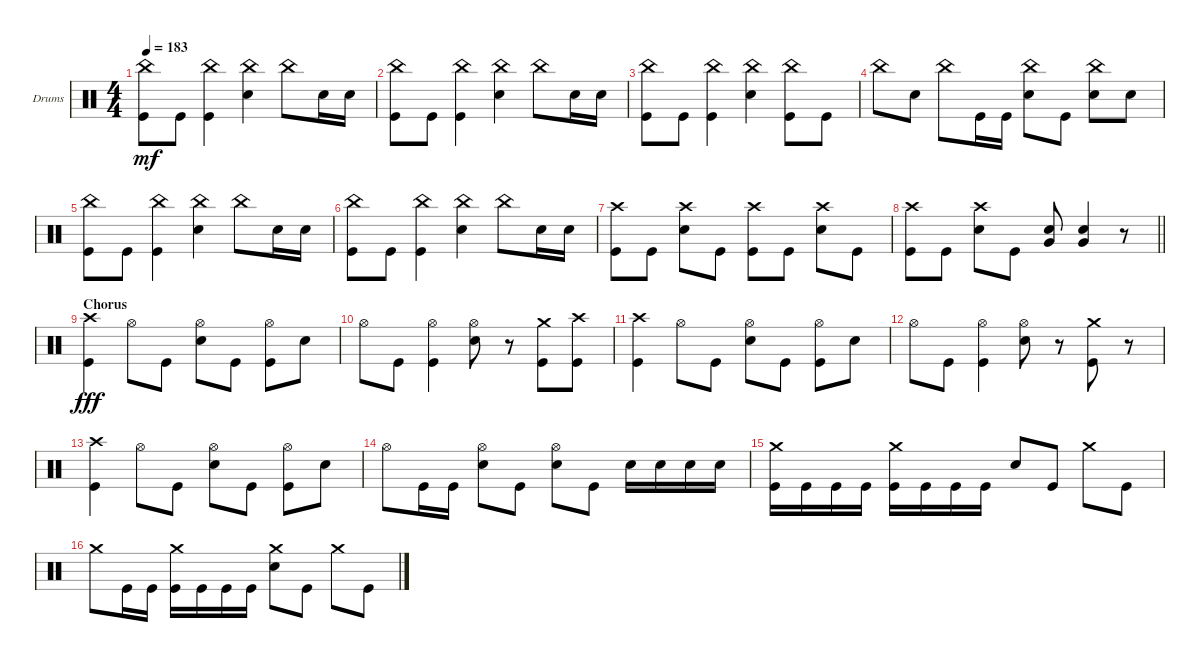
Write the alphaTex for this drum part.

\bracketExtendMode groupsimilarinstruments
\firstSystemTrackNameOrientation horizontal
\otherSystemsTrackNameOrientation horizontal
\track ("Drumkit" "Drums") {instrument percussion}
\staff {score}
\articulation defaults
\ts (4 4)
\tempo 183
\clef neutral
\scale
0.333333
\ks c
("Kick (hit)" "China (hit)").8{dy mf} "Kick (hit)".8 ("Kick (hit)" "China (hit)").4 ("Snare (hit) 2" "China (hit)").4 "China (hit)".8 "Snare (hit) 2".16 "Snare (hit) 2".16 |
\scale
0.333333 ("Kick (hit)" "China (hit)").8 "Kick (hit)".8 ("Kick (hit)" "China (hit)").4 ("Snare (hit) 2" "China (hit)").4 "China (hit)".8 "Snare (hit) 2".16 "Snare (hit) 2".16 |
\scale
0.333333 ("Kick (hit)" "China (hit)").8 "Kick (hit)".8 ("Kick (hit)" "China (hit)").4 ("Snare (hit) 2" "China (hit)").4 ("China (hit)" "Kick (hit)").8 "Kick (hit)".8 |
\scale
0.333333 "China (hit)".8 "Snare (hit) 2".8 "China (hit)".8 "Kick (hit)".16 "Kick (hit)".16 ("Snare (hit) 2" "China (hit)").8 "Kick (hit)".8 ("Snare (hit) 2" "China (hit)").8 "Snare (hit) 2".8 |
\scale
0.333333 ("Kick (hit)" "China (hit)").8 "Kick (hit)".8 ("Kick (hit)" "China (hit)").4 ("Snare (hit) 2" "China (hit)").4 "China (hit)".8 "Snare (hit) 2".16 "Snare (hit) 2".16 |
\scale
0.333333 ("Kick (hit)" "China (hit)").8 "Kick (hit)".8 ("Kick (hit)" "China (hit)").4 ("Snare (hit) 2" "China (hit)").4 "China (hit)".8 "Snare (hit) 2".16 "Snare (hit) 2".16 |
\scale
0.333333 ("Kick (hit)" "Crash high (hit)").8 "Kick (hit)".8 ("Snare (hit) 2" "Crash high (hit)").8 "Kick (hit)".8 ("Kick (hit)" "Crash high (hit)").8 "Kick (hit)".8 ("Snare (hit) 2" "Crash high (hit)").8 "Kick (hit)".8 |
\scale
0.333333
\barLineRight lightlight
("Kick (hit)" "Crash high (hit)").8 "Kick (hit)".8 ("Snare (hit) 2" "Crash high (hit)").8 "Kick (hit)".8 ("Snare (hit) 2" "Very Low Tom (hit)").8 ("Snare (hit) 2" "Very Low Tom (hit)").4 r.8 |
\section ("" "Chorus")
\scale
0.333333 ("Kick (hit)" "Crash high (hit)").4{dy fff} "Hi-Hat (open)".8 "Kick (hit)".8 ("Snare (hit) 2" "Hi-Hat (open)").8 "Kick (hit)".8 ("Kick (hit)" "Hi-Hat (open)").8 "Snare (hit) 2".8 |
\scale
0.333333 "Hi-Hat (open)".8 "Kick (hit)".8 ("Kick (hit)" "Hi-Hat (open)").4 ("Snare (hit) 2" "Hi-Hat (open)").8 r.8 ("Kick (hit)" "Crash medium (hit)").8 ("Kick (hit)" "Crash high (hit)").8 |
\scale
0.333333 ("Kick (hit)" "Crash high (hit)").4 "Hi-Hat (open)".8 "Kick (hit)".8 ("Snare (hit) 2" "Hi-Hat (open)").8 "Kick (hit)".8 ("Kick (hit)" "Hi-Hat (open)").8 "Snare (hit) 2".8 |
\scale
0.333333 "Hi-Hat (open)".8 "Kick (hit)".8 ("Kick (hit)" "Hi-Hat (open)").4 ("Snare (hit) 2" "Hi-Hat (open)").8 r.8 ("Kick (hit)" "Crash medium (hit)").8 r.8 |
\scale
0.333333 ("Kick (hit)" "Crash high (hit)").4 "Hi-Hat (open)".8 "Kick (hit)".8 ("Snare (hit) 2" "Hi-Hat (open)").8 "Kick (hit)".8 ("Kick (hit)" "Hi-Hat (open)").8 "Snare (hit) 2".8 |
\scale
0.333333 "Hi-Hat (open)".8 "Kick (hit)".16 "Kick (hit)".16 ("Snare (hit) 2" "Hi-Hat (open)").8 "Kick (hit)".8 ("Snare (hit) 2" "Hi-Hat (open)").8 "Kick (hit)".8 "Snare (hit) 2".16 "Snare (hit) 2".16 "Snare (hit) 2".16 "Snare (hit) 2".16 |
\scale
0.333333 ("Kick (hit)" "Crash medium (hit)").16 "Kick (hit)".16 "Kick (hit)".16 "Kick (hit)".16 ("Crash medium (hit)" "Kick (hit)").16 "Kick (hit)".16 "Kick (hit)".16 "Kick (hit)".16 "Snare (hit) 2".8 "Kick (hit)".8 "Crash medium (hit)".8 "Kick (hit)".8 |
\scale
0.333333 "Crash medium (hit)".8 "Kick (hit)".16 "Kick (hit)".16 ("Kick (hit)" "Crash medium (hit)").16 "Kick (hit)".16 "Kick (hit)".16 "Kick (hit)".16 ("Snare (hit) 2" "Crash medium (hit)").8 "Kick (hit)".8 "Crash medium (hit)".8 "Kick (hit)".8
